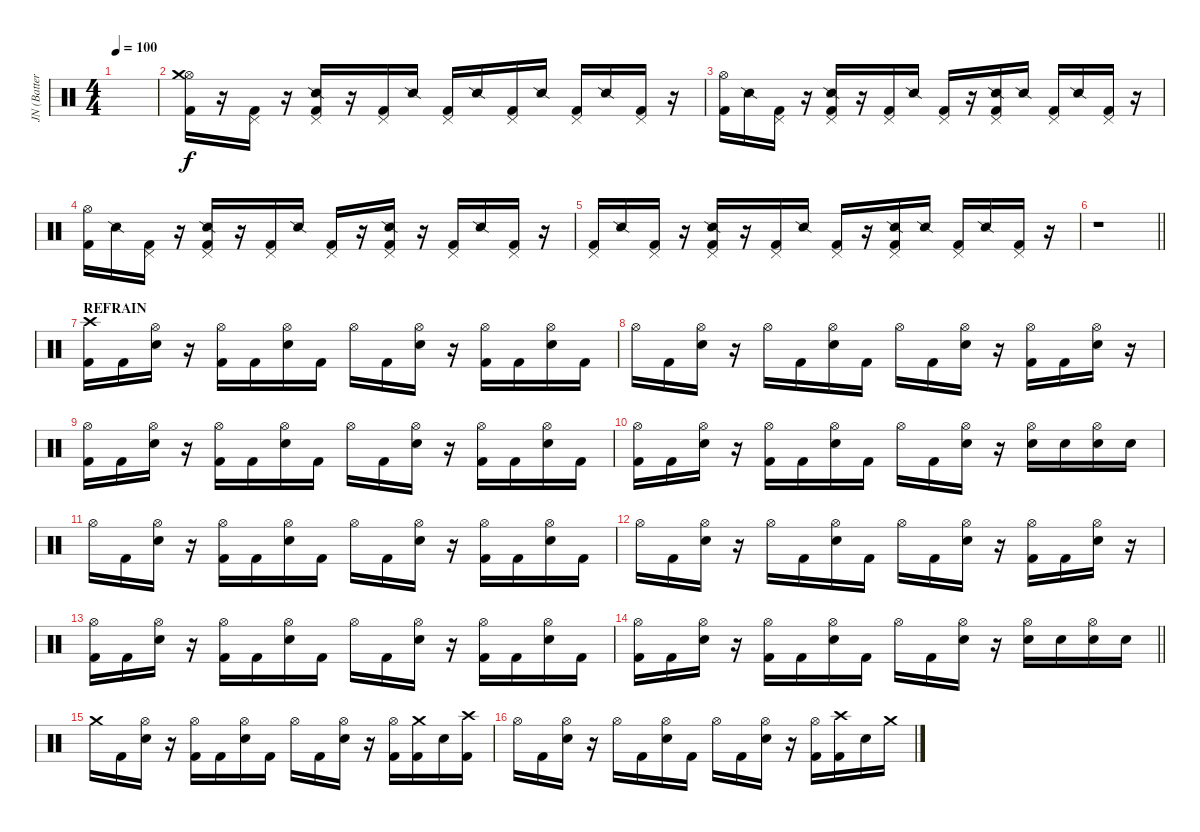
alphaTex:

\track ("JN (Batterie)" "JN (Batter") {instrument percussion}
\staff {score}
\articulation defaults
\ts (4 4)
\tempo 100
\clef neutral
\ks c
|
("Hi-Hat (open)" "Crash medium (hit)" "Kick (hit) 2").16 r.16 ("Pedal Hi-Hat (hit)" "Kick (hit) 2").16 r.16 ("Pedal Hi-Hat (hit)" "Snare (side stick) 2" "Kick (hit) 2").16 r.16 ("Pedal Hi-Hat (hit)" "Kick (hit) 2").16 "Snare (side stick) 2".16 ("Pedal Hi-Hat (hit)" "Kick (hit) 2").16 "Snare (side stick) 2".16 ("Pedal Hi-Hat (hit)" "Kick (hit) 2").16 "Snare (side stick) 2".16 ("Pedal Hi-Hat (hit)" "Kick (hit) 2").16 "Snare (side stick) 2".16 ("Pedal Hi-Hat (hit)" "Kick (hit) 2").16 r.16 |
("Hi-Hat (open)" "Kick (hit) 2").16 "Snare (side stick) 2".16 ("Pedal Hi-Hat (hit)" "Kick (hit) 2").16 r.16 ("Pedal Hi-Hat (hit)" "Snare (side stick) 2" "Kick (hit) 2").16 r.16 ("Pedal Hi-Hat (hit)" "Kick (hit) 2").16 "Snare (side stick) 2".16 ("Pedal Hi-Hat (hit)" "Kick (hit) 2").16 r.16 ("Pedal Hi-Hat (hit)" "Snare (side stick) 2" "Kick (hit) 2").16 "Snare (side stick) 2".16 ("Pedal Hi-Hat (hit)" "Kick (hit) 2").16 "Snare (side stick) 2".16 ("Pedal Hi-Hat (hit)" "Kick (hit) 2").16 r.16 |
("Hi-Hat (open)" "Kick (hit) 2").16 "Snare (side stick) 2".16 ("Pedal Hi-Hat (hit)" "Kick (hit) 2").16 r.16 ("Pedal Hi-Hat (hit)" "Snare (side stick) 2" "Kick (hit) 2").16 r.16 ("Pedal Hi-Hat (hit)" "Kick (hit) 2").16 "Snare (side stick) 2".16 ("Pedal Hi-Hat (hit)" "Kick (hit) 2").16 r.16 ("Pedal Hi-Hat (hit)" "Snare (side stick) 2" "Kick (hit) 2").16 r.16 ("Pedal Hi-Hat (hit)" "Kick (hit) 2").16 "Snare (side stick) 2".16 ("Pedal Hi-Hat (hit)" "Kick (hit) 2").16 r.16 |
("Pedal Hi-Hat (hit)" "Kick (hit) 2").16 "Snare (side stick) 2".16 ("Pedal Hi-Hat (hit)" "Kick (hit) 2").16 r.16 ("Pedal Hi-Hat (hit)" "Snare (side stick) 2" "Kick (hit) 2").16 r.16 ("Pedal Hi-Hat (hit)" "Kick (hit) 2").16 "Snare (side stick) 2".16 ("Pedal Hi-Hat (hit)" "Kick (hit) 2").16 r.16 ("Pedal Hi-Hat (hit)" "Snare (side stick) 2" "Kick (hit) 2").16 "Snare (side stick) 2".16 ("Pedal Hi-Hat (hit)" "Kick (hit) 2").16 "Snare (side stick) 2".16 ("Pedal Hi-Hat (hit)" "Kick (hit) 2").16 r.16 |
\barLineRight lightlight
r.1 |
\section ("" "REFRAIN")
("Crash high (hit)" "Kick (hit) 2").16 "Kick (hit) 2".16 ("Hi-Hat (open)" "Electric Snare (hit)").16 r.16 ("Hi-Hat (open)" "Kick (hit) 2").16 "Kick (hit) 2".16 ("Hi-Hat (open)" "Electric Snare (hit)").16 "Kick (hit) 2".16 "Hi-Hat (open)".16 "Kick (hit) 2".16 ("Hi-Hat (open)" "Electric Snare (hit)").16 r.16 ("Hi-Hat (open)" "Kick (hit) 2").16 "Kick (hit) 2".16 ("Hi-Hat (open)" "Electric Snare (hit)").16 "Kick (hit) 2".16 |
"Hi-Hat (open)".16 "Kick (hit) 2".16 ("Hi-Hat (open)" "Electric Snare (hit)").16 r.16 "Hi-Hat (open)".16 "Kick (hit) 2".16 ("Hi-Hat (open)" "Electric Snare (hit)").16 "Kick (hit) 2".16 "Hi-Hat (open)".16 "Kick (hit) 2".16 ("Hi-Hat (open)" "Electric Snare (hit)").16 r.16 ("Hi-Hat (open)" "Kick (hit) 2").16 "Kick (hit) 2".16 ("Hi-Hat (open)" "Electric Snare (hit)").16 r.16 |
("Hi-Hat (open)" "Kick (hit) 2").16 "Kick (hit) 2".16 ("Hi-Hat (open)" "Electric Snare (hit)").16 r.16 ("Hi-Hat (open)" "Kick (hit) 2").16 "Kick (hit) 2".16 ("Hi-Hat (open)" "Electric Snare (hit)").16 "Kick (hit) 2".16 "Hi-Hat (open)".16 "Kick (hit) 2".16 ("Hi-Hat (open)" "Electric Snare (hit)").16 r.16 ("Hi-Hat (open)" "Kick (hit) 2").16 "Kick (hit) 2".16 ("Hi-Hat (open)" "Electric Snare (hit)").16 "Kick (hit) 2".16 |
("Hi-Hat (open)" "Kick (hit) 2").16 "Kick (hit) 2".16 ("Hi-Hat (open)" "Electric Snare (hit)").16 r.16 ("Hi-Hat (open)" "Kick (hit) 2").16 "Kick (hit) 2".16 ("Hi-Hat (open)" "Electric Snare (hit)").16 "Kick (hit) 2".16 "Hi-Hat (open)".16 "Kick (hit) 2".16 ("Hi-Hat (open)" "Electric Snare (hit)").16 r.16 ("Hi-Hat (open)" "Electric Snare (hit)").16 "Electric Snare (hit)".16 ("Hi-Hat (open)" "Electric Snare (hit)").16 "Electric Snare (hit)".16 |
"Hi-Hat (open)".16 "Kick (hit) 2".16 ("Hi-Hat (open)" "Electric Snare (hit)").16 r.16 ("Hi-Hat (open)" "Kick (hit) 2").16 "Kick (hit) 2".16 ("Hi-Hat (open)" "Electric Snare (hit)").16 "Kick (hit) 2".16 "Hi-Hat (open)".16 "Kick (hit) 2".16 ("Hi-Hat (open)" "Electric Snare (hit)").16 r.16 ("Hi-Hat (open)" "Kick (hit) 2").16 "Kick (hit) 2".16 ("Hi-Hat (open)" "Electric Snare (hit)").16 "Kick (hit) 2".16 |
"Hi-Hat (open)".16 "Kick (hit) 2".16 ("Hi-Hat (open)" "Electric Snare (hit)").16 r.16 "Hi-Hat (open)".16 "Kick (hit) 2".16 ("Hi-Hat (open)" "Electric Snare (hit)").16 "Kick (hit) 2".16 "Hi-Hat (open)".16 "Kick (hit) 2".16 ("Hi-Hat (open)" "Electric Snare (hit)").16 r.16 ("Hi-Hat (open)" "Kick (hit) 2").16 "Kick (hit) 2".16 ("Hi-Hat (open)" "Electric Snare (hit)").16 r.16 |
("Hi-Hat (open)" "Kick (hit) 2").16 "Kick (hit) 2".16 ("Hi-Hat (open)" "Electric Snare (hit)").16 r.16 ("Hi-Hat (open)" "Kick (hit) 2").16 "Kick (hit) 2".16 ("Hi-Hat (open)" "Electric Snare (hit)").16 "Kick (hit) 2".16 "Hi-Hat (open)".16 "Kick (hit) 2".16 ("Hi-Hat (open)" "Electric Snare (hit)").16 r.16 ("Hi-Hat (open)" "Kick (hit) 2").16 "Kick (hit) 2".16 ("Hi-Hat (open)" "Electric Snare (hit)").16 "Kick (hit) 2".16 |
\barLineRight lightlight
("Hi-Hat (open)" "Kick (hit) 2").16 "Kick (hit) 2".16 ("Hi-Hat (open)" "Electric Snare (hit)").16 r.16 ("Hi-Hat (open)" "Kick (hit) 2").16 "Kick (hit) 2".16 ("Hi-Hat (open)" "Electric Snare (hit)").16 "Kick (hit) 2".16 "Hi-Hat (open)".16 "Kick (hit) 2".16 ("Hi-Hat (open)" "Electric Snare (hit)").16 r.16 ("Hi-Hat (open)" "Electric Snare (hit)").16 "Electric Snare (hit)".16 ("Hi-Hat (open)" "Electric Snare (hit)").16 "Electric Snare (hit)".16 |
"Crash medium (hit)".16 "Kick (hit) 2".16 ("Hi-Hat (open)" "Electric Snare (hit)").16 r.16 ("Hi-Hat (open)" "Kick (hit) 2").16 "Kick (hit) 2".16 ("Hi-Hat (open)" "Electric Snare (hit)").16 "Kick (hit) 2".16 "Hi-Hat (open)".16 "Kick (hit) 2".16 ("Hi-Hat (open)" "Electric Snare (hit)").16 r.16 ("Hi-Hat (open)" "Kick (hit) 2").16 ("Crash medium (hit)" "Kick (hit) 2").16 "Electric Snare (hit)".16 ("Crash high (hit)" "Kick (hit) 2").16 |
"Hi-Hat (open)".16 "Kick (hit) 2".16 ("Hi-Hat (open)" "Electric Snare (hit)").16 r.16 "Hi-Hat (open)".16 "Kick (hit) 2".16 ("Hi-Hat (open)" "Electric Snare (hit)").16 "Kick (hit) 2".16 "Hi-Hat (open)".16 "Kick (hit) 2".16 ("Hi-Hat (open)" "Electric Snare (hit)").16 r.16 ("Hi-Hat (open)" "Kick (hit) 2").16 ("Crash high (hit)" "Kick (hit) 2").16 "Electric Snare (hit)".16 "Crash medium (hit)".16
